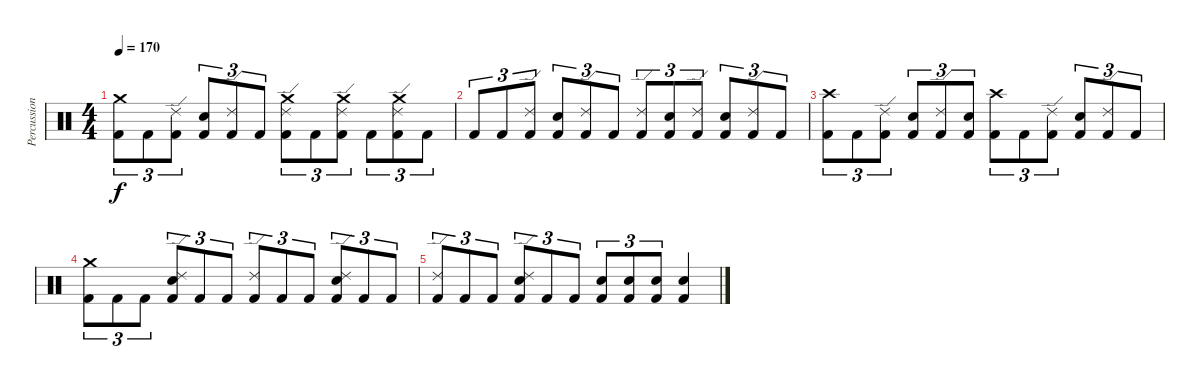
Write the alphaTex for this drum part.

\track ("Percussioni" "Percussion") {instrument percussion}
\staff {score}
\articulation defaults
\ts (4 4)
\tempo 170
\clef neutral
\ks c
("Crash medium (hit)" "Kick (hit) 2").8{tu (3 2) dy f} "Kick (hit) 2".8{tu (3 2)} ("Ride (edge) 2" "Kick (hit) 2").8{tu (3 2)} ("Snare (hit) 2" "Kick (hit) 2").8{tu (3 2)} ("Ride (edge) 2" "Kick (hit) 2").8{tu (3 2)} "Kick (hit) 2".8{tu (3 2)} ("Crash medium (hit)" "Ride (edge) 2" "Kick (hit) 2").8{tu (3 2)} "Kick (hit) 2".8{tu (3 2)} ("Crash medium (hit)" "Ride (edge) 2" "Kick (hit) 2").8{tu (3 2)} "Kick (hit) 2".8{tu (3 2)} ("Crash medium (hit)" "Ride (edge) 2" "Kick (hit) 2").8{tu (3 2)} "Kick (hit) 2".8{tu (3 2)} |
"Kick (hit) 2".8{tu (3 2)} "Kick (hit) 2".8{tu (3 2)} ("Ride (edge) 2" "Kick (hit) 2").8{tu (3 2)} ("Snare (hit) 2" "Kick (hit) 2").8{tu (3 2)} ("Ride (edge) 2" "Kick (hit) 2").8{tu (3 2)} "Kick (hit) 2".8{tu (3 2)} ("Ride (edge) 2" "Kick (hit) 2").8{tu (3 2)} ("Snare (hit) 2" "Kick (hit) 2").8{tu (3 2)} ("Ride (edge) 2" "Kick (hit) 2").8{tu (3 2)} ("Snare (hit) 2" "Kick (hit) 2").8{tu (3 2)} ("Ride (edge) 2" "Kick (hit) 2").8{tu (3 2)} "Kick (hit) 2".8{tu (3 2)} |
("Crash high (hit)" "Kick (hit) 2").8{tu (3 2)} "Kick (hit) 2".8{tu (3 2)} ("Ride (edge) 2" "Kick (hit) 2").8{tu (3 2)} ("Snare (hit) 2" "Kick (hit) 2").8{tu (3 2)} ("Ride (edge) 2" "Kick (hit) 2").8{tu (3 2)} ("Snare (hit) 2" "Kick (hit) 2").8{tu (3 2)} ("Crash high (hit)" "Kick (hit) 2").8{tu (3 2)} "Kick (hit) 2".8{tu (3 2)} ("Ride (edge) 2" "Kick (hit) 2").8{tu (3 2)} ("Snare (hit) 2" "Kick (hit) 2").8{tu (3 2)} ("Ride (edge) 2" "Kick (hit) 2").8{tu (3 2)} "Kick (hit) 2".8{tu (3 2)} |
("Crash medium (hit)" "Kick (hit) 2").8{tu (3 2)} "Kick (hit) 2".8{tu (3 2)} "Kick (hit) 2".8{tu (3 2)} ("Ride (edge) 2" "Snare (hit) 2" "Kick (hit) 2").8{tu (3 2)} "Kick (hit) 2".8{tu (3 2)} "Kick (hit) 2".8{tu (3 2)} ("Ride (edge) 2" "Kick (hit) 2").8{tu (3 2)} "Kick (hit) 2".8{tu (3 2)} "Kick (hit) 2".8{tu (3 2)} ("Ride (edge) 2" "Snare (hit) 2" "Kick (hit) 2").8{tu (3 2)} "Kick (hit) 2".8{tu (3 2)} "Kick (hit) 2".8{tu (3 2)} |
("Ride (edge) 2" "Kick (hit) 2").8{tu (3 2)} "Kick (hit) 2".8{tu (3 2)} "Kick (hit) 2".8{tu (3 2)} ("Ride (edge) 2" "Snare (hit) 2" "Kick (hit) 2").8{tu (3 2)} "Kick (hit) 2".8{tu (3 2)} "Kick (hit) 2".8{tu (3 2)} ("Snare (hit) 2" "Kick (hit) 2").8{tu (3 2)} ("Snare (hit) 2" "Kick (hit) 2").8{tu (3 2)} ("Snare (hit) 2" "Kick (hit) 2").8{tu (3 2)} ("Snare (hit) 2" "Kick (hit) 2").4
